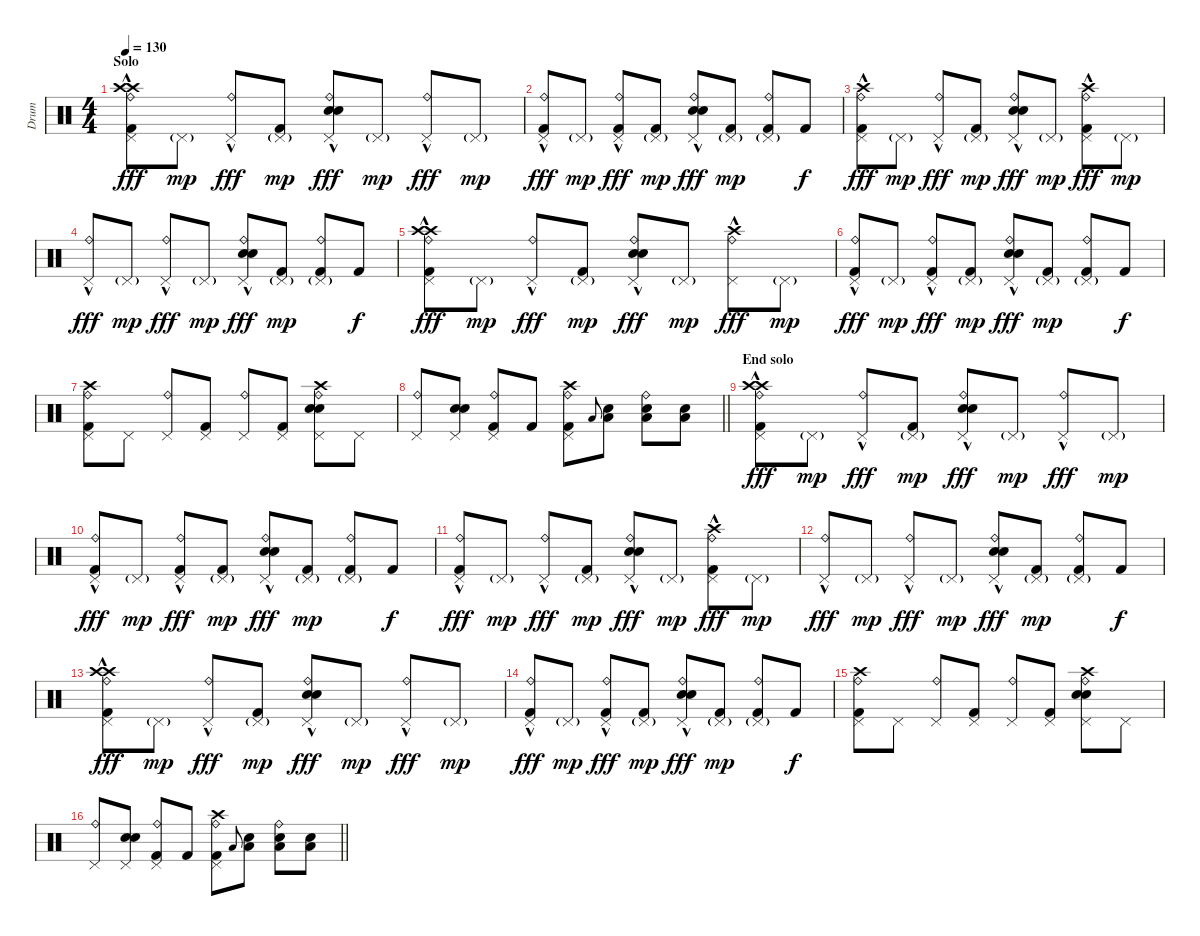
\track ("Drum" "Drum") {instrument percussion}
\staff {score}
\articulation defaults
\ts (4 4)
\section ("" "Solo")
\tempo 130
\clef neutral
\ks c
("Crash high (hit)" "Crash high (hit)" "Ride (bell)" "Kick (hit) 2" "Pedal Hi-Hat (hit)"{hac}).8{dy fff} "Pedal Hi-Hat (hit)"{g}.8{dy mp} ("Ride (bell)" "Pedal Hi-Hat (hit)"{hac}).8{dy fff} ("Kick (hit) 2" "Pedal Hi-Hat (hit)"{g}).8{dy mp} ("Electric Snare (hit)" "Electric Snare (hit)" "Ride (bell)" "Pedal Hi-Hat (hit)"{hac}).8{dy fff} "Pedal Hi-Hat (hit)"{g}.8{dy mp} ("Ride (bell)" "Pedal Hi-Hat (hit)"{hac}).8{dy fff} "Pedal Hi-Hat (hit)"{g}.8{dy mp} |
("Ride (bell)" "Kick (hit) 2" "Pedal Hi-Hat (hit)"{hac}).8{dy fff} "Pedal Hi-Hat (hit)"{g}.8{dy mp} ("Ride (bell)" "Kick (hit) 2" "Pedal Hi-Hat (hit)"{hac}).8{dy fff} ("Kick (hit) 2" "Pedal Hi-Hat (hit)"{g}).8{dy mp} ("Electric Snare (hit)" "Electric Snare (hit)" "Ride (bell)" "Pedal Hi-Hat (hit)"{hac}).8{dy fff} ("Kick (hit) 2" "Pedal Hi-Hat (hit)"{g}).8{dy mp} ("Ride (bell)" "Kick (hit) 2" "Pedal Hi-Hat (hit)"{g}).8 "Kick (hit) 2".8{dy f} |
("Crash high (hit)" "Ride (bell)" "Kick (hit) 2" "Pedal Hi-Hat (hit)"{hac}).8{dy fff} "Pedal Hi-Hat (hit)"{g}.8{dy mp} ("Ride (bell)" "Pedal Hi-Hat (hit)"{hac}).8{dy fff} ("Kick (hit) 2" "Pedal Hi-Hat (hit)"{g}).8{dy mp} ("Electric Snare (hit)" "Electric Snare (hit)" "Ride (bell)" "Pedal Hi-Hat (hit)"{hac}).8{dy fff} "Pedal Hi-Hat (hit)"{g}.8{dy mp} ("Crash high (hit)" "Ride (bell)" "Kick (hit) 2" "Pedal Hi-Hat (hit)"{hac}).8{dy fff} "Pedal Hi-Hat (hit)"{g}.8{dy mp} |
("Ride (bell)" "Pedal Hi-Hat (hit)"{hac}).8{dy fff} "Pedal Hi-Hat (hit)"{g}.8{dy mp} ("Ride (bell)" "Pedal Hi-Hat (hit)"{hac}).8{dy fff} "Pedal Hi-Hat (hit)"{g}.8{dy mp} ("Electric Snare (hit)" "Electric Snare (hit)" "Ride (bell)" "Pedal Hi-Hat (hit)"{hac}).8{dy fff} ("Kick (hit) 2" "Pedal Hi-Hat (hit)"{g}).8{dy mp} ("Ride (bell)" "Kick (hit) 2" "Pedal Hi-Hat (hit)"{g}).8 "Kick (hit) 2".8{dy f} |
("Crash high (hit)" "Crash high (hit)" "Ride (bell)" "Kick (hit) 2" "Pedal Hi-Hat (hit)"{hac}).8{dy fff} "Pedal Hi-Hat (hit)"{g}.8{dy mp} ("Ride (bell)" "Pedal Hi-Hat (hit)"{hac}).8{dy fff} ("Kick (hit) 2" "Pedal Hi-Hat (hit)"{g}).8{dy mp} ("Electric Snare (hit)" "Electric Snare (hit)" "Ride (bell)" "Pedal Hi-Hat (hit)"{hac}).8{dy fff} "Pedal Hi-Hat (hit)"{g}.8{dy mp} ("Crash high (hit)" "Ride (bell)" "Pedal Hi-Hat (hit)"{hac}).8{dy fff} "Pedal Hi-Hat (hit)"{g}.8{dy mp} |
("Ride (bell)" "Kick (hit) 2" "Pedal Hi-Hat (hit)"{hac}).8{dy fff} "Pedal Hi-Hat (hit)"{g}.8{dy mp} ("Ride (bell)" "Kick (hit) 2" "Pedal Hi-Hat (hit)"{hac}).8{dy fff} ("Kick (hit) 2" "Pedal Hi-Hat (hit)"{g}).8{dy mp} ("Electric Snare (hit)" "Electric Snare (hit)" "Ride (bell)" "Pedal Hi-Hat (hit)"{hac}).8{dy fff} ("Kick (hit) 2" "Pedal Hi-Hat (hit)"{g}).8{dy mp} ("Ride (bell)" "Kick (hit) 2" "Pedal Hi-Hat (hit)"{g}).8 "Kick (hit) 2".8{dy f} |
("Crash high (hit)" "Ride (bell)" "Kick (hit) 2" "Pedal Hi-Hat (hit)").8 "Pedal Hi-Hat (hit)".8 ("Ride (bell)" "Pedal Hi-Hat (hit)").8 ("Kick (hit) 2" "Pedal Hi-Hat (hit)").8 ("Ride (bell)" "Pedal Hi-Hat (hit)").8 ("Kick (hit) 2" "Pedal Hi-Hat (hit)").8 ("Crash high (hit)" "Electric Snare (hit)" "Electric Snare (hit)" "Ride (bell)" "Pedal Hi-Hat (hit)").8 "Pedal Hi-Hat (hit)".8 |
\barLineRight lightlight
("Ride (bell)" "Pedal Hi-Hat (hit)").8 ("Electric Snare (hit)" "Electric Snare (hit)" "Pedal Hi-Hat (hit)").8 ("Ride (bell)" "Kick (hit) 2" "Pedal Hi-Hat (hit)").8 "Kick (hit) 2".8 ("Crash high (hit)" "Ride (bell)" "Kick (hit) 2" "Pedal Hi-Hat (hit)").8 "Low Tom (hit)".8{gr onbeat} ("Electric Snare (hit)" "Low Tom (hit)").8 ("Electric Snare (hit)" "Low Tom (hit)" "Ride (bell)").8 ("Electric Snare (hit)" "Low Tom (hit)").8 |
\section ("" "End solo")
("Crash high (hit)" "Crash high (hit)" "Ride (bell)" "Kick (hit) 2" "Pedal Hi-Hat (hit)"{hac}).8{dy fff} "Pedal Hi-Hat (hit)"{g}.8{dy mp} ("Ride (bell)" "Pedal Hi-Hat (hit)"{hac}).8{dy fff} ("Kick (hit) 2" "Pedal Hi-Hat (hit)"{g}).8{dy mp} ("Electric Snare (hit)" "Electric Snare (hit)" "Ride (bell)" "Pedal Hi-Hat (hit)"{hac}).8{dy fff} "Pedal Hi-Hat (hit)"{g}.8{dy mp} ("Ride (bell)" "Pedal Hi-Hat (hit)"{hac}).8{dy fff} "Pedal Hi-Hat (hit)"{g}.8{dy mp} |
("Ride (bell)" "Kick (hit) 2" "Pedal Hi-Hat (hit)"{hac}).8{dy fff} "Pedal Hi-Hat (hit)"{g}.8{dy mp} ("Ride (bell)" "Kick (hit) 2" "Pedal Hi-Hat (hit)"{hac}).8{dy fff} ("Kick (hit) 2" "Pedal Hi-Hat (hit)"{g}).8{dy mp} ("Electric Snare (hit)" "Electric Snare (hit)" "Ride (bell)" "Pedal Hi-Hat (hit)"{hac}).8{dy fff} ("Kick (hit) 2" "Pedal Hi-Hat (hit)"{g}).8{dy mp} ("Ride (bell)" "Kick (hit) 2" "Pedal Hi-Hat (hit)"{g}).8 "Kick (hit) 2".8{dy f} |
("Ride (bell)" "Kick (hit) 2" "Pedal Hi-Hat (hit)"{hac}).8{dy fff} "Pedal Hi-Hat (hit)"{g}.8{dy mp} ("Ride (bell)" "Pedal Hi-Hat (hit)"{hac}).8{dy fff} ("Kick (hit) 2" "Pedal Hi-Hat (hit)"{g}).8{dy mp} ("Electric Snare (hit)" "Electric Snare (hit)" "Ride (bell)" "Pedal Hi-Hat (hit)"{hac}).8{dy fff} "Pedal Hi-Hat (hit)"{g}.8{dy mp} ("Crash high (hit)" "Ride (bell)" "Kick (hit) 2" "Pedal Hi-Hat (hit)"{hac}).8{dy fff} "Pedal Hi-Hat (hit)"{g}.8{dy mp} |
("Ride (bell)" "Pedal Hi-Hat (hit)"{hac}).8{dy fff} "Pedal Hi-Hat (hit)"{g}.8{dy mp} ("Ride (bell)" "Pedal Hi-Hat (hit)"{hac}).8{dy fff} "Pedal Hi-Hat (hit)"{g}.8{dy mp} ("Electric Snare (hit)" "Electric Snare (hit)" "Ride (bell)" "Pedal Hi-Hat (hit)"{hac}).8{dy fff} ("Kick (hit) 2" "Pedal Hi-Hat (hit)"{g}).8{dy mp} ("Ride (bell)" "Kick (hit) 2" "Pedal Hi-Hat (hit)"{g}).8 "Kick (hit) 2".8{dy f} |
("Crash high (hit)" "Crash high (hit)" "Ride (bell)" "Kick (hit) 2" "Pedal Hi-Hat (hit)"{hac}).8{dy fff} "Pedal Hi-Hat (hit)"{g}.8{dy mp} ("Ride (bell)" "Pedal Hi-Hat (hit)"{hac}).8{dy fff} ("Kick (hit) 2" "Pedal Hi-Hat (hit)"{g}).8{dy mp} ("Electric Snare (hit)" "Electric Snare (hit)" "Ride (bell)" "Pedal Hi-Hat (hit)"{hac}).8{dy fff} "Pedal Hi-Hat (hit)"{g}.8{dy mp} ("Ride (bell)" "Pedal Hi-Hat (hit)"{hac}).8{dy fff} "Pedal Hi-Hat (hit)"{g}.8{dy mp} |
("Ride (bell)" "Kick (hit) 2" "Pedal Hi-Hat (hit)"{hac}).8{dy fff} "Pedal Hi-Hat (hit)"{g}.8{dy mp} ("Ride (bell)" "Kick (hit) 2" "Pedal Hi-Hat (hit)"{hac}).8{dy fff} ("Kick (hit) 2" "Pedal Hi-Hat (hit)"{g}).8{dy mp} ("Electric Snare (hit)" "Electric Snare (hit)" "Ride (bell)" "Pedal Hi-Hat (hit)"{hac}).8{dy fff} ("Kick (hit) 2" "Pedal Hi-Hat (hit)"{g}).8{dy mp} ("Ride (bell)" "Kick (hit) 2" "Pedal Hi-Hat (hit)"{g}).8 "Kick (hit) 2".8{dy f} |
("Crash high (hit)" "Ride (bell)" "Kick (hit) 2" "Pedal Hi-Hat (hit)").8 "Pedal Hi-Hat (hit)".8 ("Ride (bell)" "Pedal Hi-Hat (hit)").8 ("Kick (hit) 2" "Pedal Hi-Hat (hit)").8 ("Ride (bell)" "Pedal Hi-Hat (hit)").8 ("Kick (hit) 2" "Pedal Hi-Hat (hit)").8 ("Crash high (hit)" "Electric Snare (hit)" "Electric Snare (hit)" "Ride (bell)" "Pedal Hi-Hat (hit)").8 "Pedal Hi-Hat (hit)".8 |
\barLineRight lightlight
("Ride (bell)" "Pedal Hi-Hat (hit)").8 ("Electric Snare (hit)" "Electric Snare (hit)" "Pedal Hi-Hat (hit)").8 ("Ride (bell)" "Kick (hit) 2" "Pedal Hi-Hat (hit)").8 "Kick (hit) 2".8 ("Crash high (hit)" "Ride (bell)" "Kick (hit) 2" "Pedal Hi-Hat (hit)").8 "Low Tom (hit)".8{gr onbeat} ("Electric Snare (hit)" "Low Tom (hit)").8 ("Electric Snare (hit)" "Low Tom (hit)" "Ride (bell)").8 ("Electric Snare (hit)" "Low Tom (hit)").8
